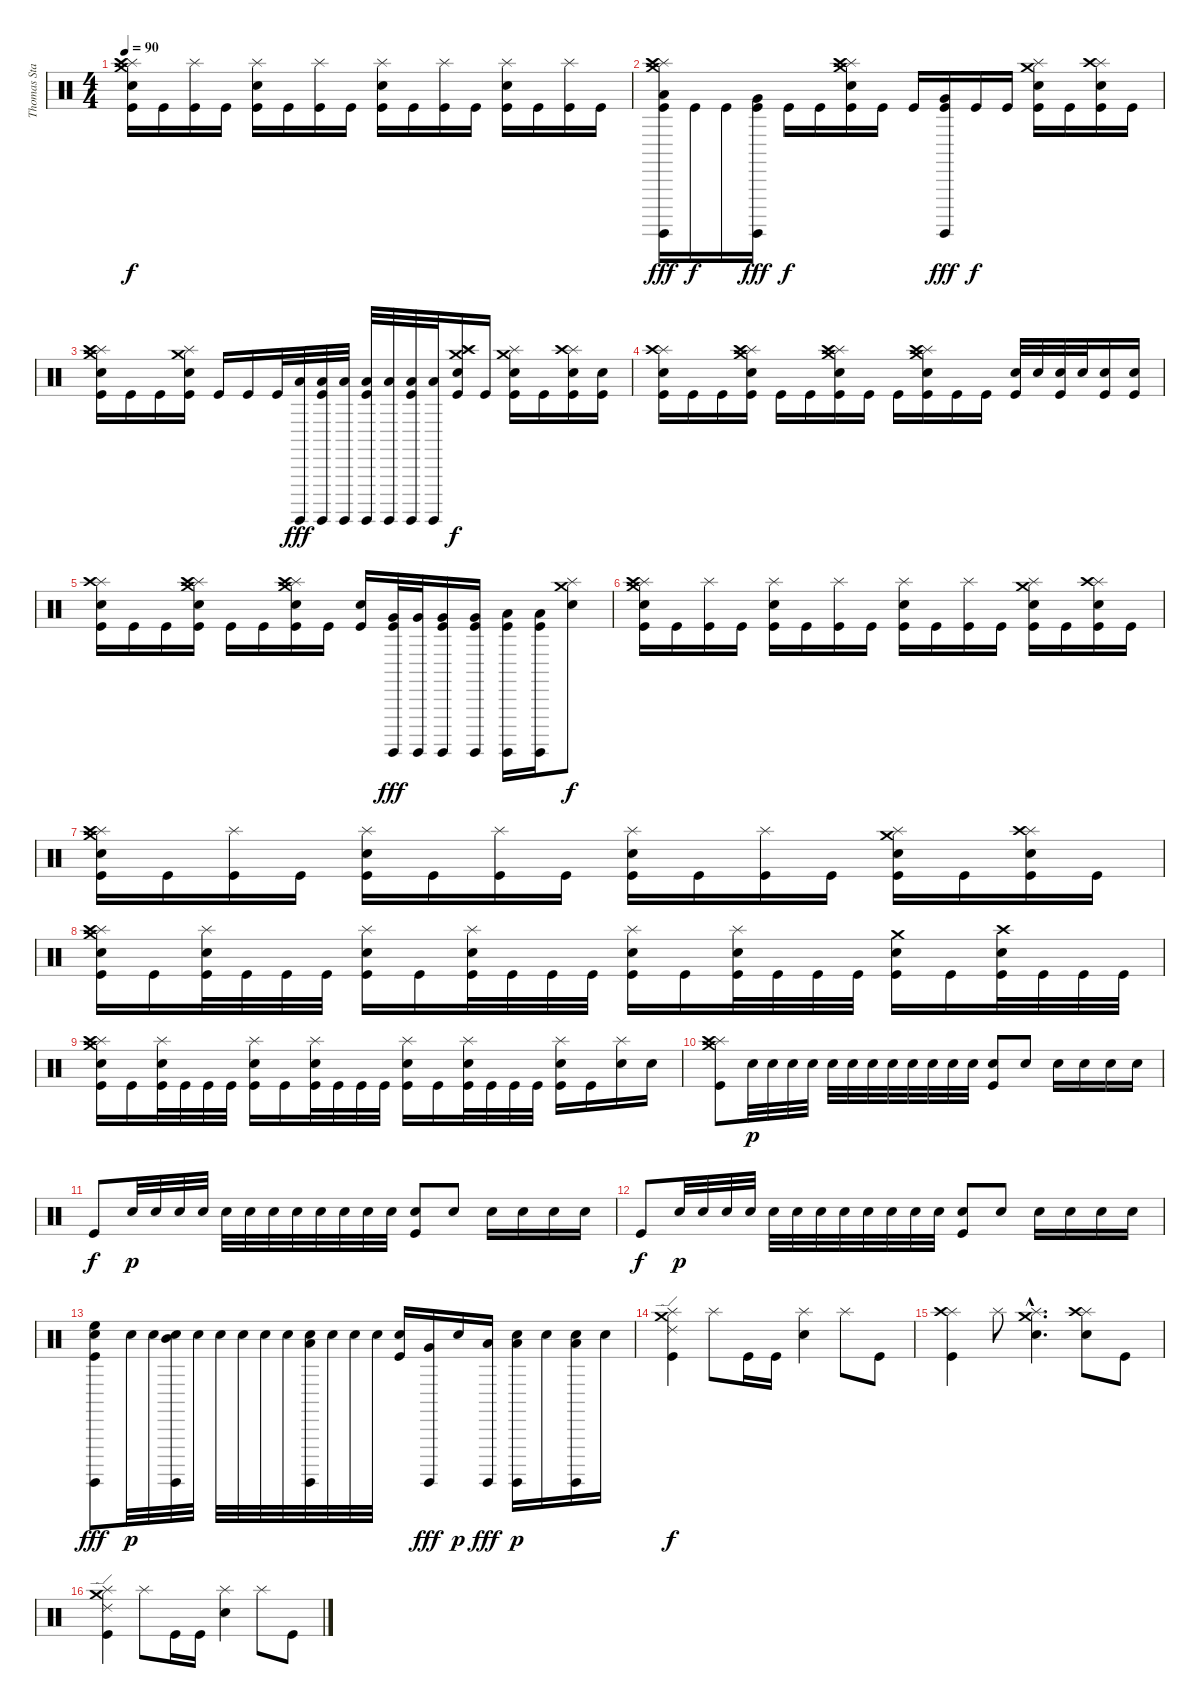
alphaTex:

\track ("Thomas Stauch" "Thomas Sta") {instrument percussion}
\staff {score}
\articulation defaults
\ts (4 4)
\tempo 90
\clef neutral
\ks c
("Crash medium (hit)" "Splash (hit)" "Crash high (hit)" "Electric Snare (hit)" "Kick (hit)").16{dy f} "Kick (hit)".16 ("Splash (hit)" "Kick (hit)").16 "Kick (hit)".16 ("Splash (hit)" "Electric Snare (hit)" "Kick (hit)").16 "Kick (hit)".16 ("Splash (hit)" "Kick (hit)").16 "Kick (hit)".16 ("Splash (hit)" "Electric Snare (hit)" "Kick (hit)").16 "Kick (hit)".16 ("Splash (hit)" "Kick (hit)").16 "Kick (hit)".16 ("Splash (hit)" "Electric Snare (hit)" "Kick (hit)").16 "Kick (hit)".16 ("Splash (hit)" "Kick (hit)").16 "Kick (hit)".16 |
("Crash medium (hit)" "Splash (hit)" "Crash high (hit)" "Surdo (hit)" "Low Tom (hit)" "Kick (hit)").16{dy fff} "Kick (hit)".16{dy f} "Kick (hit)".16 ("Surdo (hit)" "Very Low Tom (hit)" "Kick (hit)").16{dy fff} "Kick (hit)".16{dy f} "Kick (hit)".16 ("Crash medium (hit)" "Splash (hit)" "Crash high (hit)" "Electric Snare (hit)" "Kick (hit)").16 "Kick (hit)".16 "Kick (hit)".16 ("Surdo (hit)" "Very Low Tom (hit)" "Kick (hit)").16{dy fff} "Kick (hit)".16{dy f} "Kick (hit)".16 ("Crash medium (hit)" "Splash (hit)" "Electric Snare (hit)" "Kick (hit)").16 "Kick (hit)".16 ("Splash (hit)" "Crash high (hit)" "Electric Snare (hit)" "Kick (hit)").16 "Kick (hit)".16 |
("Crash medium (hit)" "Splash (hit)" "Crash high (hit)" "Electric Snare (hit)" "Kick (hit)").16 "Kick (hit)".16 "Kick (hit)".16 ("Crash medium (hit)" "Splash (hit)" "Electric Snare (hit)" "Kick (hit)").16 "Kick (hit)".16 "Kick (hit)".16 "Kick (hit)".32 ("Surdo (hit)" "Low Floor Tom (hit)").32{dy fff} ("Surdo (hit)" "Low Floor Tom (hit)" "Kick (hit)").32 ("Surdo (hit)" "Low Floor Tom (hit)").32 ("Surdo (hit)" "Low Floor Tom (hit)" "Kick (hit)").32 ("Surdo (hit)" "Low Floor Tom (hit)").32 ("Surdo (hit)" "Low Floor Tom (hit)" "Kick (hit)").32 ("Surdo (hit)" "Low Floor Tom (hit)").32 ("Crash medium (hit)" "Splash (hit)" "Crash high (hit)" "Electric Snare (hit)" "Kick (hit)").16{dy f} "Kick (hit)".16 ("Crash medium (hit)" "Splash (hit)" "Electric Snare (hit)" "Kick (hit)").16 "Kick (hit)".16 ("Splash (hit)" "Crash high (hit)" "Electric Snare (hit)" "Kick (hit)").16 ("Electric Snare (hit)" "Kick (hit)").16 |
("Splash (hit)" "Crash high (hit)" "Electric Snare (hit)" "Kick (hit)").16 "Kick (hit)".16 "Kick (hit)".16 ("Crash medium (hit)" "Splash (hit)" "Crash high (hit)" "Electric Snare (hit)" "Kick (hit)").16 "Kick (hit)".16 "Kick (hit)".16 ("Crash medium (hit)" "Splash (hit)" "Crash high (hit)" "Electric Snare (hit)" "Kick (hit)").16 "Kick (hit)".16 "Kick (hit)".16 ("Crash medium (hit)" "Splash (hit)" "Crash high (hit)" "Electric Snare (hit)" "Kick (hit)").16 "Kick (hit)".16 "Kick (hit)".16 ("Electric Snare (hit)" "Kick (hit)").32 "Electric Snare (hit)".32 ("Electric Snare (hit)" "Kick (hit)").32 "Electric Snare (hit)".32 ("Electric Snare (hit)" "Kick (hit)").16 ("Electric Snare (hit)" "Kick (hit)").16 |
("Splash (hit)" "Crash high (hit)" "Electric Snare (hit)" "Kick (hit)").16 "Kick (hit)".16 "Kick (hit)".16 ("Crash medium (hit)" "Splash (hit)" "Crash high (hit)" "Electric Snare (hit)" "Kick (hit)").16 "Kick (hit)".16 "Kick (hit)".16 ("Crash medium (hit)" "Splash (hit)" "Crash high (hit)" "Electric Snare (hit)" "Kick (hit)").16 "Kick (hit)".16 ("Electric Snare (hit)" "Kick (hit)").16 ("Surdo (hit)" "Very Low Tom (hit)" "Kick (hit)").32{dy fff} ("Surdo (hit)" "Very Low Tom (hit)").32 ("Surdo (hit)" "Very Low Tom (hit)" "Kick (hit)").16 ("Surdo (hit)" "Very Low Tom (hit)" "Kick (hit)").16 ("Surdo (hit)" "Low Floor Tom (hit)" "Kick (hit)").16 ("Surdo (hit)" "Low Floor Tom (hit)" "Kick (hit)").16 ("Crash medium (hit)" "Splash (hit)" "Electric Snare (hit)").8{dy f} |
("Crash medium (hit)" "Splash (hit)" "Crash high (hit)" "Electric Snare (hit)" "Kick (hit)").16 "Kick (hit)".16 ("Splash (hit)" "Kick (hit)").16 "Kick (hit)".16 ("Splash (hit)" "Electric Snare (hit)" "Kick (hit)").16 "Kick (hit)".16 ("Splash (hit)" "Kick (hit)").16 "Kick (hit)".16 ("Splash (hit)" "Electric Snare (hit)" "Kick (hit)").16 "Kick (hit)".16 ("Splash (hit)" "Kick (hit)").16 "Kick (hit)".16 ("Crash medium (hit)" "Splash (hit)" "Electric Snare (hit)" "Kick (hit)").16 "Kick (hit)".16 ("Splash (hit)" "Crash high (hit)" "Electric Snare (hit)" "Kick (hit)").16 "Kick (hit)".16 |
("Crash medium (hit)" "Splash (hit)" "Crash high (hit)" "Electric Snare (hit)" "Kick (hit)").16 "Kick (hit)".16 ("Splash (hit)" "Kick (hit)").16 "Kick (hit)".16 ("Splash (hit)" "Electric Snare (hit)" "Kick (hit)").16 "Kick (hit)".16 ("Splash (hit)" "Kick (hit)").16 "Kick (hit)".16 ("Splash (hit)" "Electric Snare (hit)" "Kick (hit)").16 "Kick (hit)".16 ("Splash (hit)" "Kick (hit)").16 "Kick (hit)".16 ("Crash medium (hit)" "Splash (hit)" "Electric Snare (hit)" "Kick (hit)").16 "Kick (hit)".16 ("Splash (hit)" "Crash high (hit)" "Electric Snare (hit)" "Kick (hit)").16 "Kick (hit)".16 |
("Crash medium (hit)" "Splash (hit)" "Crash high (hit)" "Electric Snare (hit)" "Kick (hit)").16 "Kick (hit)".16 ("Splash (hit)" "Electric Snare (hit)" "Kick (hit)").32 "Kick (hit)".32 "Kick (hit)".32 "Kick (hit)".32 ("Splash (hit)" "Electric Snare (hit)" "Kick (hit)").16 "Kick (hit)".16 ("Splash (hit)" "Electric Snare (hit)" "Kick (hit)").32 "Kick (hit)".32 "Kick (hit)".32 "Kick (hit)".32 ("Splash (hit)" "Electric Snare (hit)" "Kick (hit)").16 "Kick (hit)".16 ("Splash (hit)" "Electric Snare (hit)" "Kick (hit)").32 "Kick (hit)".32 "Kick (hit)".32 "Kick (hit)".32 ("Crash medium (hit)" "Electric Snare (hit)" "Kick (hit)").16 "Kick (hit)".16 ("Crash high (hit)" "Electric Snare (hit)" "Kick (hit)").32 "Kick (hit)".32 "Kick (hit)".32 "Kick (hit)".32 |
("Crash medium (hit)" "Splash (hit)" "Crash high (hit)" "Electric Snare (hit)" "Kick (hit)").16 "Kick (hit)".16 ("Splash (hit)" "Electric Snare (hit)" "Kick (hit)").32 "Kick (hit)".32 "Kick (hit)".32 "Kick (hit)".32 ("Splash (hit)" "Electric Snare (hit)" "Kick (hit)").16 "Kick (hit)".16 ("Splash (hit)" "Electric Snare (hit)" "Kick (hit)").32 "Kick (hit)".32 "Kick (hit)".32 "Kick (hit)".32 ("Splash (hit)" "Electric Snare (hit)" "Kick (hit)").16 "Kick (hit)".16 ("Splash (hit)" "Electric Snare (hit)" "Kick (hit)").32 "Kick (hit)".32 "Kick (hit)".32 "Kick (hit)".32 ("Splash (hit)" "Electric Snare (hit)" "Kick (hit)").16 "Kick (hit)".16 ("Splash (hit)" "Electric Snare (hit)").16 "Electric Snare (hit)".16 |
("Crash medium (hit)" "Splash (hit)" "Crash high (hit)" "Kick (hit)").8 "Electric Snare (hit)".32{dy p} "Electric Snare (hit)".32 "Electric Snare (hit)".32 "Electric Snare (hit)".32 "Electric Snare (hit)".32 "Electric Snare (hit)".32 "Electric Snare (hit)".32 "Electric Snare (hit)".32 "Electric Snare (hit)".32 "Electric Snare (hit)".32 "Electric Snare (hit)".32 "Electric Snare (hit)".32 ("Electric Snare (hit)" "Kick (hit)").8 "Electric Snare (hit)".8 "Electric Snare (hit)".16 "Electric Snare (hit)".16 "Electric Snare (hit)".16 "Electric Snare (hit)".16 |
"Kick (hit)".8{dy f} "Electric Snare (hit)".32{dy p} "Electric Snare (hit)".32 "Electric Snare (hit)".32 "Electric Snare (hit)".32 "Electric Snare (hit)".32 "Electric Snare (hit)".32 "Electric Snare (hit)".32 "Electric Snare (hit)".32 "Electric Snare (hit)".32 "Electric Snare (hit)".32 "Electric Snare (hit)".32 "Electric Snare (hit)".32 ("Electric Snare (hit)" "Kick (hit)").8 "Electric Snare (hit)".8 "Electric Snare (hit)".16 "Electric Snare (hit)".16 "Electric Snare (hit)".16 "Electric Snare (hit)".16 |
"Kick (hit)".8{dy f} "Electric Snare (hit)".32{dy p} "Electric Snare (hit)".32 "Electric Snare (hit)".32 "Electric Snare (hit)".32 "Electric Snare (hit)".32 "Electric Snare (hit)".32 "Electric Snare (hit)".32 "Electric Snare (hit)".32 "Electric Snare (hit)".32 "Electric Snare (hit)".32 "Electric Snare (hit)".32 "Electric Snare (hit)".32 ("Electric Snare (hit)" "Kick (hit)").8 "Electric Snare (hit)".8 "Electric Snare (hit)".16 "Electric Snare (hit)".16 "Electric Snare (hit)".16 "Electric Snare (hit)".16 |
("Surdo (hit)" "Electric Snare (hit)" "High Floor Tom (hit)" "Kick (hit)").8{dy fff} "Electric Snare (hit)".32{dy p} "Electric Snare (hit)".32 ("Surdo (hit)" "Mid Tom (hit)" "Electric Snare (hit)").32 "Electric Snare (hit)".32 "Electric Snare (hit)".32 "Electric Snare (hit)".32 "Electric Snare (hit)".32 "Electric Snare (hit)".32 ("Surdo (hit)" "Low Tom (hit)" "Electric Snare (hit)").32 "Electric Snare (hit)".32 "Electric Snare (hit)".32 "Electric Snare (hit)".32 ("Electric Snare (hit)" "Kick (hit)").16 ("Surdo (hit)" "Very Low Tom (hit)").16{dy fff} "Electric Snare (hit)".16{dy p} ("Surdo (hit)" "Low Floor Tom (hit)").16{dy fff} ("Surdo (hit)" "Low Floor Tom (hit)" "Electric Snare (hit)").16{dy p} "Electric Snare (hit)".16 ("Surdo (hit)" "Low Floor Tom (hit)" "Electric Snare (hit)").16 "Electric Snare (hit)".16 |
("Crash medium (hit)" "Splash (hit)" "Ride (edge) 2" "Kick (hit)").4{dy f} "Splash (hit)".8 "Kick (hit)".16 "Kick (hit)".16 ("Splash (hit)" "Electric Snare (hit)").4 "Splash (hit)".8 "Kick (hit)".8 |
("Splash (hit)" "Crash high (hit)" "Kick (hit)").4 "Splash (hit)".8 ("Crash medium (hit)"{hac} "Splash (hit)"{hac} "Electric Snare (hit)"{hac}).4{d} ("Splash (hit)" "Crash high (hit)" "Electric Snare (hit)").8 "Kick (hit)".8 |
("Crash medium (hit)" "Splash (hit)" "Ride (edge) 2" "Kick (hit)").4 "Splash (hit)".8 "Kick (hit)".16 "Kick (hit)".16 ("Splash (hit)" "Electric Snare (hit)").4 "Splash (hit)".8 "Kick (hit)".8
